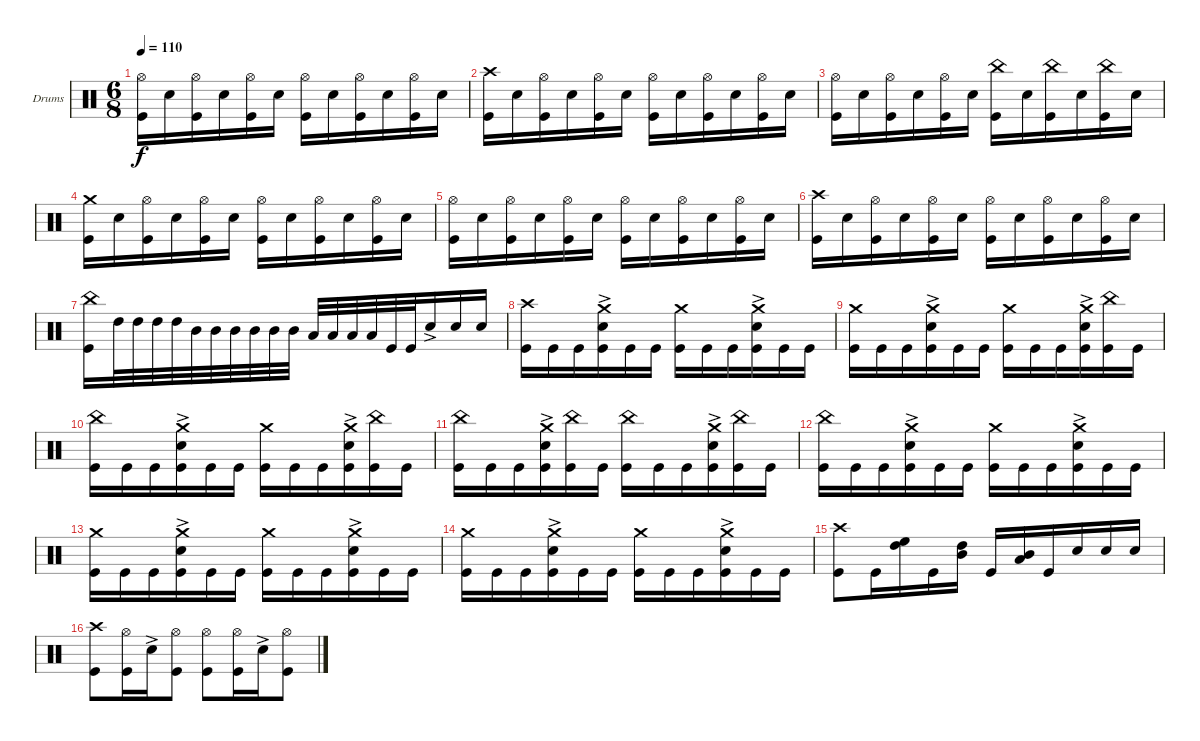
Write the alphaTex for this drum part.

\bracketExtendMode groupsimilarinstruments
\firstSystemTrackNameOrientation horizontal
\otherSystemsTrackNameOrientation horizontal
\track ("Drumkit" "Drums") {instrument percussion}
\staff {score}
\articulation defaults
\ts (6 8)
\tempo 110
\clef neutral
\ks c
("Kick (hit)" "Hi-Hat (open)").16{dy f} "Snare (hit) 2".16 ("Kick (hit)" "Hi-Hat (open)").16 "Snare (hit) 2".16 ("Kick (hit)" "Hi-Hat (open)").16 "Snare (hit) 2".16 ("Kick (hit)" "Hi-Hat (open)").16 "Snare (hit) 2".16 ("Kick (hit)" "Hi-Hat (open)").16 "Snare (hit) 2".16 ("Kick (hit)" "Hi-Hat (open)").16 "Snare (hit) 2".16 |
("Kick (hit)" "Crash high (hit)").16 "Snare (hit) 2".16 ("Kick (hit)" "Hi-Hat (open)").16 "Snare (hit) 2".16 ("Kick (hit)" "Hi-Hat (open)").16 "Snare (hit) 2".16 ("Kick (hit)" "Hi-Hat (open)").16 "Snare (hit) 2".16 ("Kick (hit)" "Hi-Hat (open)").16 "Snare (hit) 2".16 ("Kick (hit)" "Hi-Hat (open)").16 "Snare (hit) 2".16 |
("Kick (hit)" "Hi-Hat (open)").16 "Snare (hit) 2".16 ("Kick (hit)" "Hi-Hat (open)").16 "Snare (hit) 2".16 ("Kick (hit)" "Hi-Hat (open)").16 "Snare (hit) 2".16 ("Kick (hit)" "China (hit)").16 "Snare (hit) 2".16 ("Kick (hit)" "China (hit)").16 "Snare (hit) 2".16 ("Kick (hit)" "China (hit)").16 "Snare (hit) 2".16 |
("Kick (hit)" "Crash medium (hit)").16 "Snare (hit) 2".16 ("Kick (hit)" "Hi-Hat (open)").16 "Snare (hit) 2".16 ("Kick (hit)" "Hi-Hat (open)").16 "Snare (hit) 2".16 ("Kick (hit)" "Hi-Hat (open)").16 "Snare (hit) 2".16 ("Kick (hit)" "Hi-Hat (open)").16 "Snare (hit) 2".16 ("Kick (hit)" "Hi-Hat (open)").16 "Snare (hit) 2".16 |
("Kick (hit)" "Hi-Hat (open)").16 "Snare (hit) 2".16 ("Kick (hit)" "Hi-Hat (open)").16 "Snare (hit) 2".16 ("Kick (hit)" "Hi-Hat (open)").16 "Snare (hit) 2".16 ("Kick (hit)" "Hi-Hat (open)").16 "Snare (hit) 2".16 ("Kick (hit)" "Hi-Hat (open)").16 "Snare (hit) 2".16 ("Kick (hit)" "Hi-Hat (open)").16 "Snare (hit) 2".16 |
("Kick (hit)" "Crash high (hit)").16 "Snare (hit) 2".16 ("Kick (hit)" "Hi-Hat (open)").16 "Snare (hit) 2".16 ("Kick (hit)" "Hi-Hat (open)").16 "Snare (hit) 2".16 ("Kick (hit)" "Hi-Hat (open)").16 "Snare (hit) 2".16 ("Kick (hit)" "Hi-Hat (open)").16 "Snare (hit) 2".16 ("Kick (hit)" "Hi-Hat (open)").16 "Snare (hit) 2".16 |
("Kick (hit)" "China (hit)").16 "High Tom (hit)".32 "High Tom (hit)".32 "High Tom (hit)".32 "High Tom (hit)".32 "Mid Tom (hit)".32 "Mid Tom (hit)".32 "Mid Tom (hit)".32 "Mid Tom (hit)".32 "Mid Tom (hit)".32 "Mid Tom (hit)".32 "Low Tom (hit)".32 "Low Tom (hit)".32 "Low Tom (hit)".32 "Low Tom (hit)".32 "Kick (hit)".32 "Kick (hit)".32 "Snare (hit) 2"{ac}.16 "Snare (hit) 2".16 "Snare (hit) 2".16 |
("Kick (hit)" "Crash high (hit)").16 "Kick (hit)".16 "Kick (hit)".16 ("Kick (hit)" "Snare (hit) 2"{ac} "Crash medium (hit)").16 "Kick (hit)".16 "Kick (hit)".16 ("Kick (hit)" "Crash medium (hit)").16 "Kick (hit)".16 "Kick (hit)".16 ("Kick (hit)" "Snare (hit) 2"{ac} "Crash medium (hit)").16 "Kick (hit)".16 "Kick (hit)".16 |
("Kick (hit)" "Crash medium (hit)").16 "Kick (hit)".16 "Kick (hit)".16 ("Kick (hit)" "Snare (hit) 2"{ac} "Crash medium (hit)").16 "Kick (hit)".16 "Kick (hit)".16 ("Kick (hit)" "Crash medium (hit)").16 "Kick (hit)".16 "Kick (hit)".16 ("Kick (hit)" "Snare (hit) 2"{ac} "Crash medium (hit)").16 ("Kick (hit)" "China (hit)").16 "Kick (hit)".16 |
("Kick (hit)" "China (hit)").16 "Kick (hit)".16 "Kick (hit)".16 ("Kick (hit)" "Snare (hit) 2"{ac} "Crash medium (hit)").16 "Kick (hit)".16 "Kick (hit)".16 ("Kick (hit)" "Crash medium (hit)").16 "Kick (hit)".16 "Kick (hit)".16 ("Kick (hit)" "Snare (hit) 2"{ac} "Crash medium (hit)").16 ("Kick (hit)" "China (hit)").16 "Kick (hit)".16 |
("Kick (hit)" "China (hit)").16 "Kick (hit)".16 "Kick (hit)".16 ("Kick (hit)" "Snare (hit) 2"{ac} "Crash medium (hit)").16 ("Kick (hit)" "China (hit)").16 "Kick (hit)".16 ("Kick (hit)" "China (hit)").16 "Kick (hit)".16 "Kick (hit)".16 ("Kick (hit)" "Snare (hit) 2"{ac} "Crash medium (hit)").16 ("Kick (hit)" "China (hit)").16 "Kick (hit)".16 |
("Kick (hit)" "China (hit)").16 "Kick (hit)".16 "Kick (hit)".16 ("Kick (hit)" "Snare (hit) 2"{ac} "Crash medium (hit)").16 "Kick (hit)".16 "Kick (hit)".16 ("Kick (hit)" "Crash medium (hit)").16 "Kick (hit)".16 "Kick (hit)".16 ("Kick (hit)" "Snare (hit) 2"{ac} "Crash medium (hit)").16 "Kick (hit)".16 "Kick (hit)".16 |
("Kick (hit)" "Crash medium (hit)").16 "Kick (hit)".16 "Kick (hit)".16 ("Kick (hit)" "Snare (hit) 2"{ac} "Crash medium (hit)").16 "Kick (hit)".16 "Kick (hit)".16 ("Kick (hit)" "Crash medium (hit)").16 "Kick (hit)".16 "Kick (hit)".16 ("Kick (hit)" "Snare (hit) 2"{ac} "Crash medium (hit)").16 "Kick (hit)".16 "Kick (hit)".16 |
("Kick (hit)" "Crash medium (hit)").16 "Kick (hit)".16 "Kick (hit)".16 ("Kick (hit)" "Snare (hit) 2"{ac} "Crash medium (hit)").16 "Kick (hit)".16 "Kick (hit)".16 ("Kick (hit)" "Crash medium (hit)").16 "Kick (hit)".16 "Kick (hit)".16 ("Kick (hit)" "Snare (hit) 2"{ac} "Crash medium (hit)").16 "Kick (hit)".16 "Kick (hit)".16 |
("Kick (hit)" "Crash high (hit)").8 "Kick (hit)".16 ("High Floor Tom (hit)" "High Tom (hit)").16 "Kick (hit)".16 ("High Tom (hit)" "Mid Tom (hit)").16 "Kick (hit)".16 ("Mid Tom (hit)" "Low Tom (hit)").16 "Kick (hit)".16 "Snare (hit) 2".16 "Snare (hit) 2".16 "Snare (hit) 2".16 |
("Kick (hit)" "Crash high (hit)").8 ("Kick (hit)" "Hi-Hat (open)").16 "Snare (hit) 2"{ac}.16 ("Kick (hit)" "Hi-Hat (open)").8 ("Kick (hit)" "Hi-Hat (open)").8 ("Kick (hit)" "Hi-Hat (open)").16 "Snare (hit) 2"{ac}.16 ("Kick (hit)" "Hi-Hat (open)").8
